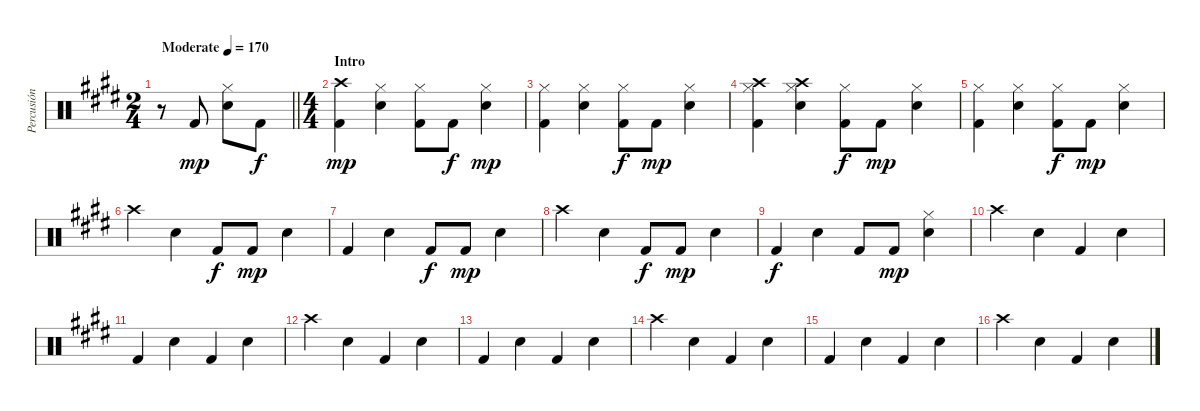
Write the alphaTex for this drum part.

\track ("Percusión" "Percusión") {instrument percussion}
\staff {score}
\articulation defaults
\ts (2 4)
\tempo (170 "Moderate")
\clef neutral
\barLineRight lightlight
\ks e
r.8{dy mp} "Kick (hit) 2".8 ("Snare (hit) 2" "Hi-Hat (closed)").8 "Kick (hit) 2".8{dy f} |
\ts (4 4)
\section ("" "Intro")
("Crash high (hit)" "Kick (hit) 2").4{dy mp} ("Snare (hit) 2" "Hi-Hat (closed)").4 ("Kick (hit) 2" "Hi-Hat (closed)").8 "Kick (hit) 2".8{dy f} ("Snare (hit) 2" "Hi-Hat (closed)").4{dy mp} |
("Kick (hit) 2" "Hi-Hat (closed)").4 ("Snare (hit) 2" "Hi-Hat (closed)").4 ("Kick (hit) 2" "Hi-Hat (closed)").8{dy f} "Kick (hit) 2".8{dy mp} ("Snare (hit) 2" "Hi-Hat (closed)").4 |
("Crash high (hit)" "Kick (hit) 2" "Hi-Hat (closed)").4 ("Snare (hit) 2" "Crash high (hit)" "Hi-Hat (closed)").4 ("Kick (hit) 2" "Hi-Hat (closed)").8{dy f} "Kick (hit) 2".8{dy mp} ("Snare (hit) 2" "Hi-Hat (closed)").4 |
("Kick (hit) 2" "Hi-Hat (closed)").4 ("Snare (hit) 2" "Hi-Hat (closed)").4 ("Kick (hit) 2" "Hi-Hat (closed)").8{dy f} "Kick (hit) 2".8{dy mp} ("Snare (hit) 2" "Hi-Hat (closed)").4 |
"Crash high (hit)".4 "Snare (hit) 2".4 "Kick (hit) 2".8{dy f} "Kick (hit) 2".8{dy mp} "Snare (hit) 2".4 |
"Kick (hit) 2".4 "Snare (hit) 2".4 "Kick (hit) 2".8{dy f} "Kick (hit) 2".8{dy mp} "Snare (hit) 2".4 |
"Crash high (hit)".4 "Snare (hit) 2".4 "Kick (hit) 2".8{dy f} "Kick (hit) 2".8{dy mp} "Snare (hit) 2".4 |
"Kick (hit) 2".4{dy f} "Snare (hit) 2".4 "Kick (hit) 2".8 "Kick (hit) 2".8{dy mp} ("Snare (hit) 2" "Hi-Hat (closed)").4 |
"Crash high (hit)".4 "Snare (hit) 2".4 "Kick (hit) 2".4 "Snare (hit) 2".4 |
"Kick (hit) 2".4 "Snare (hit) 2".4 "Kick (hit) 2".4 "Snare (hit) 2".4 |
"Crash high (hit)".4 "Snare (hit) 2".4 "Kick (hit) 2".4 "Snare (hit) 2".4 |
"Kick (hit) 2".4 "Snare (hit) 2".4 "Kick (hit) 2".4 "Snare (hit) 2".4 |
"Crash high (hit)".4 "Snare (hit) 2".4 "Kick (hit) 2".4 "Snare (hit) 2".4 |
"Kick (hit) 2".4 "Snare (hit) 2".4 "Kick (hit) 2".4 "Snare (hit) 2".4 |
"Crash high (hit)".4 "Snare (hit) 2".4 "Kick (hit) 2".4 "Snare (hit) 2".4
